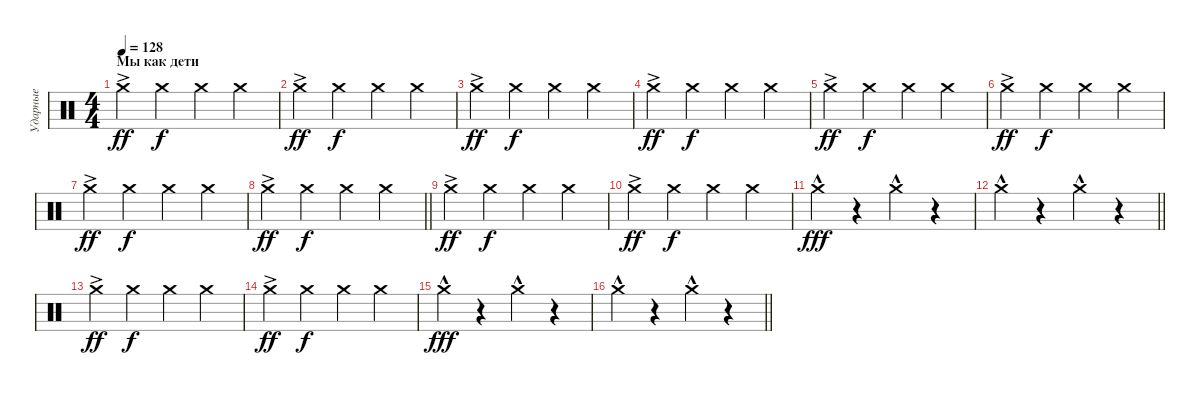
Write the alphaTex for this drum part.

\track ("Ударные" "Ударные") {instrument percussion}
\staff {score}
\articulation defaults
\ts (4 4)
\section ("" "Мы как дети")
\tempo 128
\clef neutral
\ks c "Crash medium (hit)"{ac}.4{dy ff volume 2} "Crash medium (hit)".4{dy f} "Crash medium (hit)".4 "Crash medium (hit)".4
|
"Crash medium (hit)"{ac}.4{dy ff} "Crash medium (hit)".4{dy f} "Crash medium (hit)".4 "Crash medium (hit)".4 |
"Crash medium (hit)"{ac}.4{dy ff} "Crash medium (hit)".4{dy f} "Crash medium (hit)".4 "Crash medium (hit)".4 |
"Crash medium (hit)"{ac}.4{dy ff} "Crash medium (hit)".4{dy f} "Crash medium (hit)".4 "Crash medium (hit)".4 |
"Crash medium (hit)"{ac}.4{dy ff} "Crash medium (hit)".4{dy f} "Crash medium (hit)".4 "Crash medium (hit)".4 |
"Crash medium (hit)"{ac}.4{dy ff} "Crash medium (hit)".4{dy f} "Crash medium (hit)".4 "Crash medium (hit)".4 |
"Crash medium (hit)"{ac}.4{dy ff} "Crash medium (hit)".4{dy f} "Crash medium (hit)".4 "Crash medium (hit)".4 |
\barLineRight lightlight "Crash medium (hit)"{ac}.4{dy ff} "Crash medium (hit)".4{dy f} "Crash medium (hit)".4 "Crash medium (hit)".4
|
"Crash medium (hit)"{ac}.4{dy ff} "Crash medium (hit)".4{dy f} "Crash medium (hit)".4 "Crash medium (hit)".4 |
"Crash medium (hit)"{ac}.4{dy ff} "Crash medium (hit)".4{dy f} "Crash medium (hit)".4 "Crash medium (hit)".4 |
"Crash medium (hit)"{hac}.4{dy fff} r.4 "Crash medium (hit)"{hac}.4 r.4 |
\barLineRight lightlight "Crash medium (hit)"{hac}.4
r.4 "Crash medium (hit)"{hac}.4 r.4 |
"Crash medium (hit)"{ac}.4{dy ff} "Crash medium (hit)".4{dy f} "Crash medium (hit)".4 "Crash medium (hit)".4 |
"Crash medium (hit)"{ac}.4{dy ff} "Crash medium (hit)".4{dy f} "Crash medium (hit)".4 "Crash medium (hit)".4 |
"Crash medium (hit)"{hac}.4{dy fff} r.4 "Crash medium (hit)"{hac}.4 r.4 |
\barLineRight lightlight "Crash medium (hit)"{hac}.4
r.4 "Crash medium (hit)"{hac}.4 r.4
